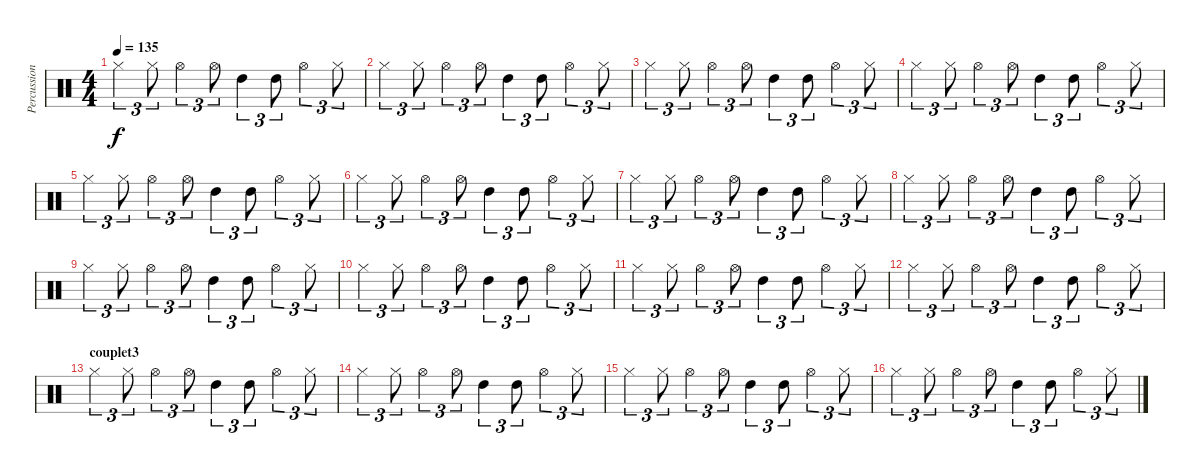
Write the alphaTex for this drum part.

\track ("Percussions" "Percussion") {instrument percussion}
\staff {score}
\articulation defaults
\ts (4 4)
\tempo 135
\clef neutral
\ks c "Hi-Hat (closed)".4{tu (3 2) dy f} "Hi-Hat (closed)".8{tu (3 2)} "Hi-Hat (open)".4{tu (3 2)} "Hi-Hat (open)".8{tu (3 2)} "High Tom (hit)".4{tu (3 2)} "High Tom (hit)".8{tu (3 2)} "Hi-Hat (open)".4{tu (3 2)} "Hi-Hat (closed)".8{tu (3 2)}
|
"Hi-Hat (closed)".4{tu (3 2)} "Hi-Hat (closed)".8{tu (3 2)} "Hi-Hat (open)".4{tu (3 2)} "Hi-Hat (open)".8{tu (3 2)} "High Tom (hit)".4{tu (3 2)} "High Tom (hit)".8{tu (3 2)} "Hi-Hat (open)".4{tu (3 2)} "Hi-Hat (closed)".8{tu (3 2)} |
"Hi-Hat (closed)".4{tu (3 2)} "Hi-Hat (closed)".8{tu (3 2)} "Hi-Hat (open)".4{tu (3 2)} "Hi-Hat (open)".8{tu (3 2)} "High Tom (hit)".4{tu (3 2)} "High Tom (hit)".8{tu (3 2)} "Hi-Hat (open)".4{tu (3 2)} "Hi-Hat (closed)".8{tu (3 2)} |
"Hi-Hat (closed)".4{tu (3 2)} "Hi-Hat (closed)".8{tu (3 2)} "Hi-Hat (open)".4{tu (3 2)} "Hi-Hat (open)".8{tu (3 2)} "High Tom (hit)".4{tu (3 2)} "High Tom (hit)".8{tu (3 2)} "Hi-Hat (open)".4{tu (3 2)} "Hi-Hat (closed)".8{tu (3 2)} |
"Hi-Hat (closed)".4{tu (3 2)} "Hi-Hat (closed)".8{tu (3 2)} "Hi-Hat (open)".4{tu (3 2)} "Hi-Hat (open)".8{tu (3 2)} "High Tom (hit)".4{tu (3 2)} "High Tom (hit)".8{tu (3 2)} "Hi-Hat (open)".4{tu (3 2)} "Hi-Hat (closed)".8{tu (3 2)} |
"Hi-Hat (closed)".4{tu (3 2)} "Hi-Hat (closed)".8{tu (3 2)} "Hi-Hat (open)".4{tu (3 2)} "Hi-Hat (open)".8{tu (3 2)} "High Tom (hit)".4{tu (3 2)} "High Tom (hit)".8{tu (3 2)} "Hi-Hat (open)".4{tu (3 2)} "Hi-Hat (closed)".8{tu (3 2)} |
"Hi-Hat (closed)".4{tu (3 2)} "Hi-Hat (closed)".8{tu (3 2)} "Hi-Hat (open)".4{tu (3 2)} "Hi-Hat (open)".8{tu (3 2)} "High Tom (hit)".4{tu (3 2)} "High Tom (hit)".8{tu (3 2)} "Hi-Hat (open)".4{tu (3 2)} "Hi-Hat (closed)".8{tu (3 2)} |
"Hi-Hat (closed)".4{tu (3 2)} "Hi-Hat (closed)".8{tu (3 2)} "Hi-Hat (open)".4{tu (3 2)} "Hi-Hat (open)".8{tu (3 2)} "High Tom (hit)".4{tu (3 2)} "High Tom (hit)".8{tu (3 2)} "Hi-Hat (open)".4{tu (3 2)} "Hi-Hat (closed)".8{tu (3 2)} |
"Hi-Hat (closed)".4{tu (3 2)} "Hi-Hat (closed)".8{tu (3 2)} "Hi-Hat (open)".4{tu (3 2)} "Hi-Hat (open)".8{tu (3 2)} "High Tom (hit)".4{tu (3 2)} "High Tom (hit)".8{tu (3 2)} "Hi-Hat (open)".4{tu (3 2)} "Hi-Hat (closed)".8{tu (3 2)} |
"Hi-Hat (closed)".4{tu (3 2)} "Hi-Hat (closed)".8{tu (3 2)} "Hi-Hat (open)".4{tu (3 2)} "Hi-Hat (open)".8{tu (3 2)} "High Tom (hit)".4{tu (3 2)} "High Tom (hit)".8{tu (3 2)} "Hi-Hat (open)".4{tu (3 2)} "Hi-Hat (closed)".8{tu (3 2)} |
"Hi-Hat (closed)".4{tu (3 2)} "Hi-Hat (closed)".8{tu (3 2)} "Hi-Hat (open)".4{tu (3 2)} "Hi-Hat (open)".8{tu (3 2)} "High Tom (hit)".4{tu (3 2)} "High Tom (hit)".8{tu (3 2)} "Hi-Hat (open)".4{tu (3 2)} "Hi-Hat (closed)".8{tu (3 2)} |
"Hi-Hat (closed)".4{tu (3 2)} "Hi-Hat (closed)".8{tu (3 2)} "Hi-Hat (open)".4{tu (3 2)} "Hi-Hat (open)".8{tu (3 2)} "High Tom (hit)".4{tu (3 2)} "High Tom (hit)".8{tu (3 2)} "Hi-Hat (open)".4{tu (3 2)} "Hi-Hat (closed)".8{tu (3 2)} |
\section ("" "couplet3")
"Hi-Hat (closed)".4{tu (3 2)} "Hi-Hat (closed)".8{tu (3 2)} "Hi-Hat (open)".4{tu (3 2)} "Hi-Hat (open)".8{tu (3 2)} "High Tom (hit)".4{tu (3 2)} "High Tom (hit)".8{tu (3 2)} "Hi-Hat (open)".4{tu (3 2)} "Hi-Hat (closed)".8{tu (3 2)} |
"Hi-Hat (closed)".4{tu (3 2)} "Hi-Hat (closed)".8{tu (3 2)} "Hi-Hat (open)".4{tu (3 2)} "Hi-Hat (open)".8{tu (3 2)} "High Tom (hit)".4{tu (3 2)} "High Tom (hit)".8{tu (3 2)} "Hi-Hat (open)".4{tu (3 2)} "Hi-Hat (closed)".8{tu (3 2)} |
"Hi-Hat (closed)".4{tu (3 2)} "Hi-Hat (closed)".8{tu (3 2)} "Hi-Hat (open)".4{tu (3 2)} "Hi-Hat (open)".8{tu (3 2)} "High Tom (hit)".4{tu (3 2)} "High Tom (hit)".8{tu (3 2)} "Hi-Hat (open)".4{tu (3 2)} "Hi-Hat (closed)".8{tu (3 2)} |
"Hi-Hat (closed)".4{tu (3 2)} "Hi-Hat (closed)".8{tu (3 2)} "Hi-Hat (open)".4{tu (3 2)} "Hi-Hat (open)".8{tu (3 2)} "High Tom (hit)".4{tu (3 2)} "High Tom (hit)".8{tu (3 2)} "Hi-Hat (open)".4{tu (3 2)} "Hi-Hat (closed)".8{tu (3 2)}
